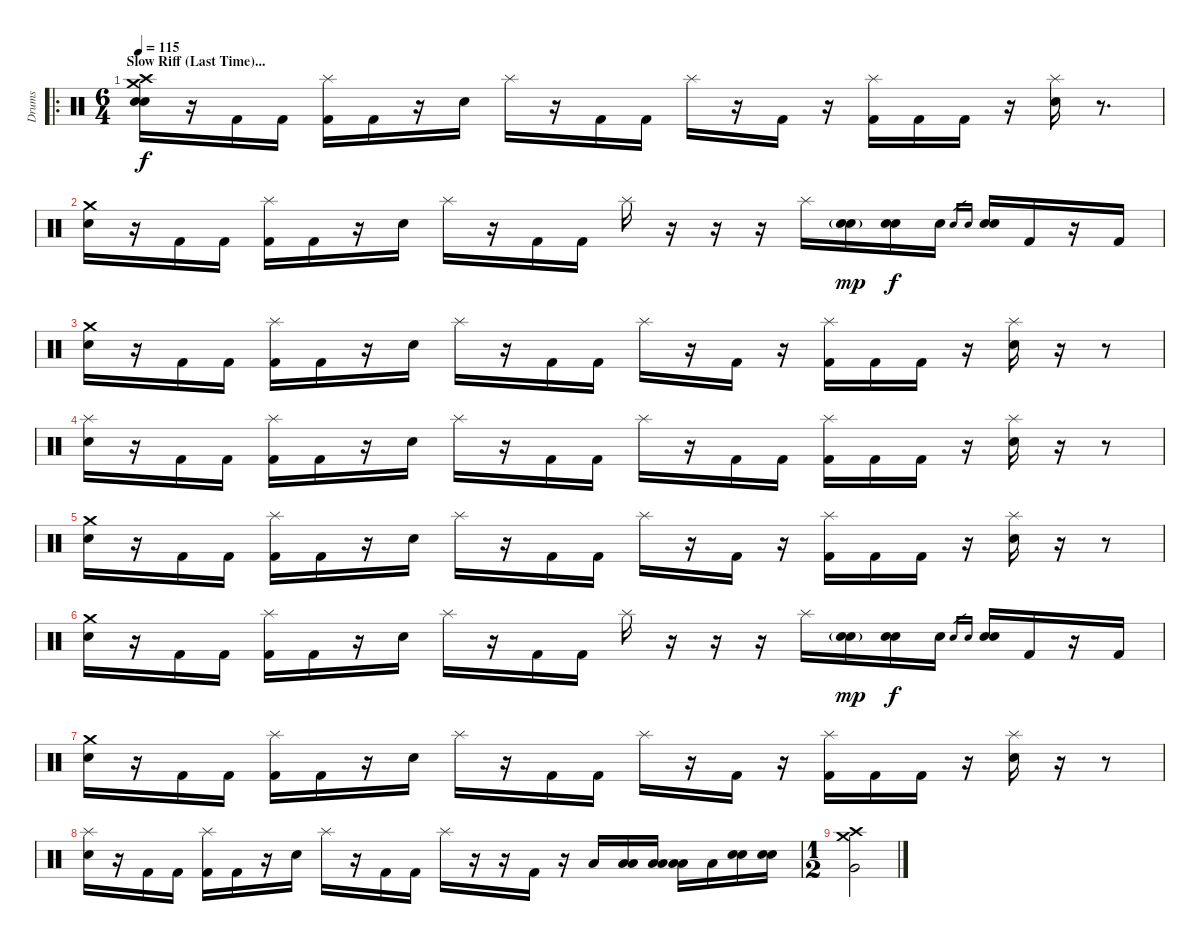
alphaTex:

\track ("Drums" "Drums") {instrument percussion}
\staff {score}
\articulation defaults
\ro
\ts (6 4)
\section ("" "Slow Riff (Last Time)...")
\tempo 115
\clef neutral
\ks c
("Electric Snare (hit)" "Electric Snare (hit)" "Crash medium (hit)" "Crash high (hit)").16{dy f} r.16 "Kick (hit) 2".16 "Kick (hit) 2".16 ("Kick (hit) 2" "Splash (hit)").16 "Kick (hit) 2".16 r.16 "Electric Snare (hit)".16 "Splash (hit)".16 r.16 "Kick (hit) 2".16 "Kick (hit) 2".16 "Splash (hit)".16 r.16 "Kick (hit) 2".16 r.16 ("Kick (hit) 2" "Splash (hit)").16 "Kick (hit) 2".16 "Kick (hit) 2".16 r.16 ("Electric Snare (hit)" "Splash (hit)").16 r.8{d} |
("Electric Snare (hit)" "Crash medium (hit)").16 r.16 "Kick (hit) 2".16 "Kick (hit) 2".16 ("Kick (hit) 2" "Splash (hit)").16 "Kick (hit) 2".16 r.16 "Electric Snare (hit)".16 "Splash (hit)".16 r.16 "Kick (hit) 2".16 "Kick (hit) 2".16 "Splash (hit)".16 r.16 r.16 r.16 "Splash (hit)".16 ("Electric Snare (hit)"{g} "Electric Snare (hit)"{g}).16{dy mp} ("Electric Snare (hit)" "Electric Snare (hit)").16{dy f} "Snare (hit)".16 "Electric Snare (hit)".16{gr} "Electric Snare (hit)".16{gr} ("Electric Snare (hit)" "Electric Snare (hit)").16 "Kick (hit) 2".16 r.16 "Kick (hit) 2".16 |
("Electric Snare (hit)" "Crash medium (hit)").16 r.16 "Kick (hit) 2".16 "Kick (hit) 2".16 ("Kick (hit) 2" "Splash (hit)").16 "Kick (hit) 2".16 r.16 "Electric Snare (hit)".16 "Splash (hit)".16 r.16 "Kick (hit) 2".16 "Kick (hit) 2".16 "Splash (hit)".16 r.16 "Kick (hit) 2".16 r.16 ("Kick (hit) 2" "Splash (hit)").16 "Kick (hit) 2".16 "Kick (hit) 2".16 r.16 ("Electric Snare (hit)" "Splash (hit)").16 r.16 r.8 |
("Electric Snare (hit)" "Splash (hit)").16 r.16 "Kick (hit) 2".16 "Kick (hit) 2".16 ("Kick (hit) 2" "Splash (hit)").16 "Kick (hit) 2".16 r.16 "Electric Snare (hit)".16 "Splash (hit)".16 r.16 "Kick (hit) 2".16 "Kick (hit) 2".16 "Splash (hit)".16 r.16 "Kick (hit) 2".16 "Kick (hit) 2".16 ("Kick (hit) 2" "Splash (hit)").16 "Kick (hit) 2".16 "Kick (hit) 2".16 r.16 ("Electric Snare (hit)" "Splash (hit)").16 r.16 r.8 |
("Electric Snare (hit)" "Crash medium (hit)").16 r.16 "Kick (hit) 2".16 "Kick (hit) 2".16 ("Kick (hit) 2" "Splash (hit)").16 "Kick (hit) 2".16 r.16 "Electric Snare (hit)".16 "Splash (hit)".16 r.16 "Kick (hit) 2".16 "Kick (hit) 2".16 "Splash (hit)".16 r.16 "Kick (hit) 2".16 r.16 ("Kick (hit) 2" "Splash (hit)").16 "Kick (hit) 2".16 "Kick (hit) 2".16 r.16 ("Electric Snare (hit)" "Splash (hit)").16 r.16 r.8 |
("Electric Snare (hit)" "Crash medium (hit)").16 r.16 "Kick (hit) 2".16 "Kick (hit) 2".16 ("Kick (hit) 2" "Splash (hit)").16 "Kick (hit) 2".16 r.16 "Electric Snare (hit)".16 "Splash (hit)".16 r.16 "Kick (hit) 2".16 "Kick (hit) 2".16 "Splash (hit)".16 r.16 r.16 r.16 "Splash (hit)".16 ("Electric Snare (hit)"{g} "Electric Snare (hit)"{g}).16{dy mp} ("Electric Snare (hit)" "Electric Snare (hit)").16{dy f} "Snare (hit)".16 "Electric Snare (hit)".16{gr} "Electric Snare (hit)".16{gr} ("Electric Snare (hit)" "Electric Snare (hit)").16 "Kick (hit) 2".16 r.16 "Kick (hit) 2".16 |
("Electric Snare (hit)" "Crash medium (hit)").16 r.16 "Kick (hit) 2".16 "Kick (hit) 2".16 ("Kick (hit) 2" "Splash (hit)").16 "Kick (hit) 2".16 r.16 "Electric Snare (hit)".16 "Splash (hit)".16 r.16 "Kick (hit) 2".16 "Kick (hit) 2".16 "Splash (hit)".16 r.16 "Kick (hit) 2".16 r.16 ("Kick (hit) 2" "Splash (hit)").16 "Kick (hit) 2".16 "Kick (hit) 2".16 r.16 ("Electric Snare (hit)" "Splash (hit)").16 r.16 r.8 |
("Electric Snare (hit)" "Splash (hit)").16 r.16 "Kick (hit) 2".16 "Kick (hit) 2".16 ("Kick (hit) 2" "Splash (hit)").16 "Kick (hit) 2".16 r.16 "Electric Snare (hit)".16 "Splash (hit)".16 r.16 "Kick (hit) 2".16 "Kick (hit) 2".16 "Splash (hit)".16 r.16 r.16 "Kick (hit) 2".16 r.16 "Low Tom (hit)".16 ("Low Floor Tom (hit)" "Low Floor Tom (hit)").16 ("Low Floor Tom (hit)" "Low Floor Tom (hit)").16 ("Low Floor Tom (hit)" "Low Floor Tom (hit)").16 "Low Tom (hit)".16 ("Electric Snare (hit)" "Electric Snare (hit)").16 ("Electric Snare (hit)" "Electric Snare (hit)").16 |
\ts (1 2)
("Very Low Tom (hit)" "Crash medium (hit)" "Crash high (hit)").2
